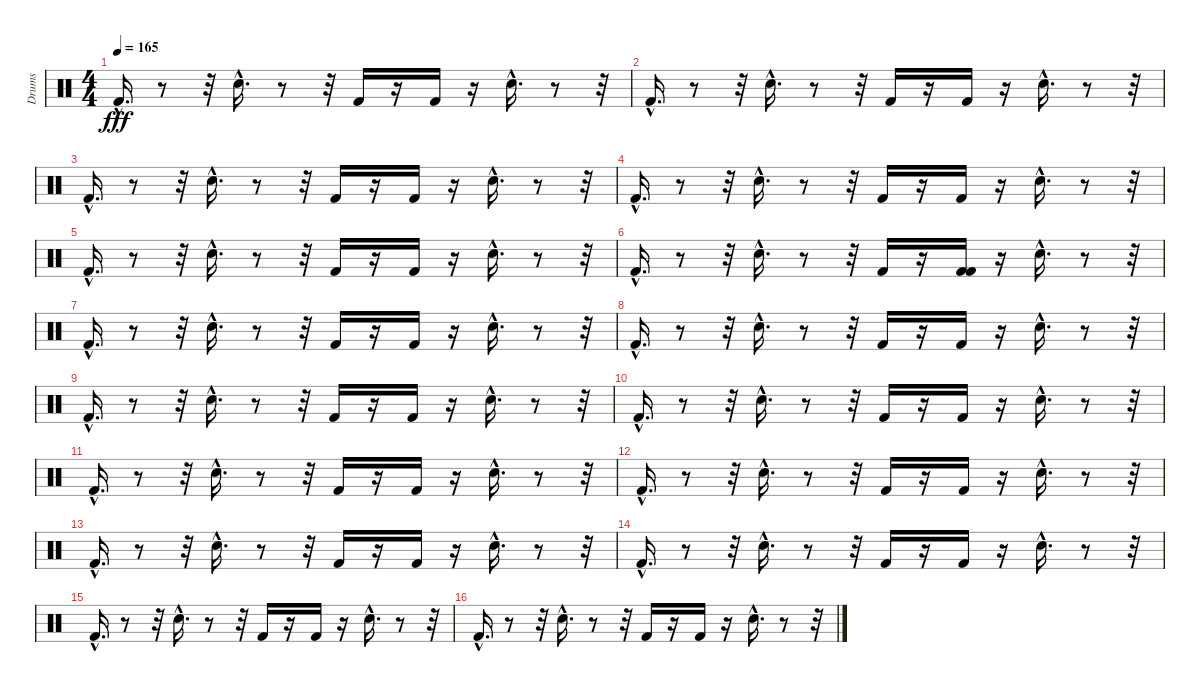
\track ("Drums" "Drums") {instrument percussion}
\staff {score}
\articulation defaults
\ts (4 4)
\tempo 165
\clef neutral
\ks c "Kick (hit) 2"{hac}.16{d dy fff}
r.8 r.32 "Electric Snare (hit)"{hac}.16{d} r.8 r.32 "Kick (hit) 2".16 r.16 "Kick (hit) 2".16 r.16 "Electric Snare (hit)"{hac}.16{d} r.8 r.32 |
"Kick (hit) 2"{hac}.16{d} r.8 r.32 "Electric Snare (hit)"{hac}.16{d} r.8 r.32 "Kick (hit) 2".16 r.16 "Kick (hit) 2".16 r.16 "Electric Snare (hit)"{hac}.16{d} r.8 r.32 |
"Kick (hit) 2"{hac}.16{d} r.8 r.32 "Electric Snare (hit)"{hac}.16{d} r.8 r.32 "Kick (hit) 2".16 r.16 "Kick (hit) 2".16 r.16 "Electric Snare (hit)"{hac}.16{d} r.8 r.32 |
"Kick (hit) 2"{hac}.16{d} r.8 r.32 "Electric Snare (hit)"{hac}.16{d} r.8 r.32 "Kick (hit) 2".16 r.16 "Kick (hit) 2".16 r.16 "Electric Snare (hit)"{hac}.16{d} r.8 r.32 |
"Kick (hit) 2"{hac}.16{d} r.8 r.32 "Electric Snare (hit)"{hac}.16{d} r.8 r.32 "Kick (hit) 2".16 r.16 "Kick (hit) 2".16 r.16 "Electric Snare (hit)"{hac}.16{d} r.8 r.32 |
"Kick (hit) 2"{hac}.16{d} r.8 r.32 "Electric Snare (hit)"{hac}.16{d} r.8 r.32 "Kick (hit) 2".16 r.16 ("Kick (hit) 2" "Kick (hit) 2").16 r.16 "Electric Snare (hit)"{hac}.16{d} r.8 r.32 |
"Kick (hit) 2"{hac}.16{d} r.8 r.32 "Electric Snare (hit)"{hac}.16{d} r.8 r.32 "Kick (hit) 2".16 r.16 "Kick (hit) 2".16 r.16 "Electric Snare (hit)"{hac}.16{d} r.8 r.32 |
"Kick (hit) 2"{hac}.16{d} r.8 r.32 "Electric Snare (hit)"{hac}.16{d} r.8 r.32 "Kick (hit) 2".16 r.16 "Kick (hit) 2".16 r.16 "Electric Snare (hit)"{hac}.16{d} r.8 r.32 |
"Kick (hit) 2"{hac}.16{d} r.8 r.32 "Electric Snare (hit)"{hac}.16{d} r.8 r.32 "Kick (hit) 2".16 r.16 "Kick (hit) 2".16 r.16 "Electric Snare (hit)"{hac}.16{d} r.8 r.32 |
"Kick (hit) 2"{hac}.16{d} r.8 r.32 "Electric Snare (hit)"{hac}.16{d} r.8 r.32 "Kick (hit) 2".16 r.16 "Kick (hit) 2".16 r.16 "Electric Snare (hit)"{hac}.16{d} r.8 r.32 |
"Kick (hit) 2"{hac}.16{d} r.8 r.32 "Electric Snare (hit)"{hac}.16{d} r.8 r.32 "Kick (hit) 2".16 r.16 "Kick (hit) 2".16 r.16 "Electric Snare (hit)"{hac}.16{d} r.8 r.32 |
"Kick (hit) 2"{hac}.16{d} r.8 r.32 "Electric Snare (hit)"{hac}.16{d} r.8 r.32 "Kick (hit) 2".16 r.16 "Kick (hit) 2".16 r.16 "Electric Snare (hit)"{hac}.16{d} r.8 r.32 |
"Kick (hit) 2"{hac}.16{d} r.8 r.32 "Electric Snare (hit)"{hac}.16{d} r.8 r.32 "Kick (hit) 2".16 r.16 "Kick (hit) 2".16 r.16 "Electric Snare (hit)"{hac}.16{d} r.8 r.32 |
"Kick (hit) 2"{hac}.16{d} r.8 r.32 "Electric Snare (hit)"{hac}.16{d} r.8 r.32 "Kick (hit) 2".16 r.16 "Kick (hit) 2".16 r.16 "Electric Snare (hit)"{hac}.16{d} r.8 r.32 |
"Kick (hit) 2"{hac}.16{d} r.8 r.32 "Electric Snare (hit)"{hac}.16{d} r.8 r.32 "Kick (hit) 2".16 r.16 "Kick (hit) 2".16 r.16 "Electric Snare (hit)"{hac}.16{d} r.8 r.32 |
"Kick (hit) 2"{hac}.16{d} r.8 r.32 "Electric Snare (hit)"{hac}.16{d} r.8 r.32 "Kick (hit) 2".16 r.16 "Kick (hit) 2".16 r.16 "Electric Snare (hit)"{hac}.16{d} r.8 r.32
